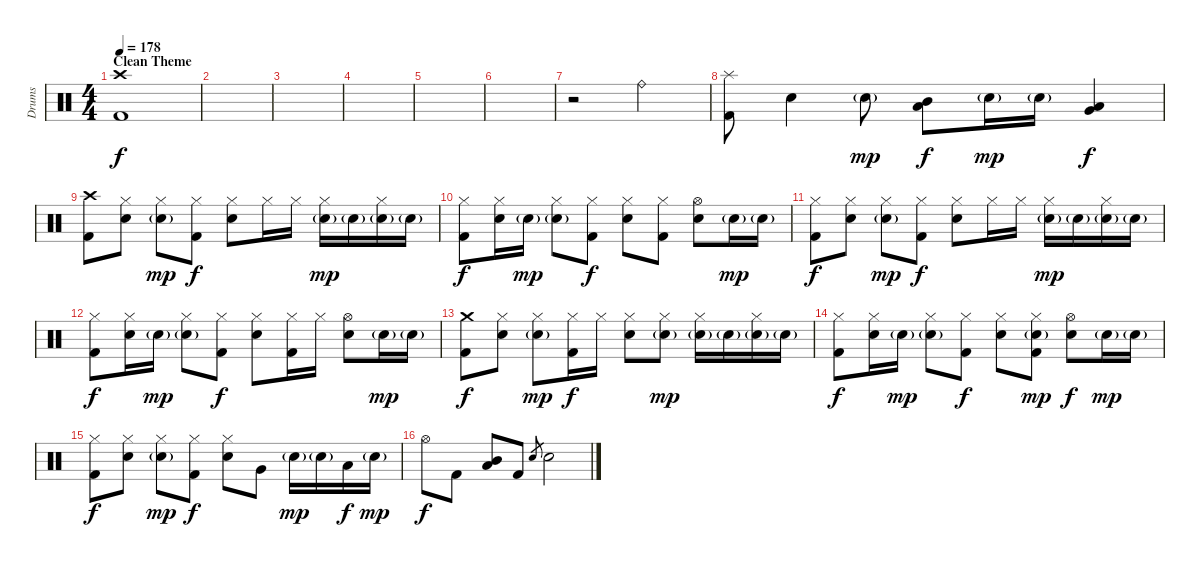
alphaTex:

\track ("Drums" "Drums") {instrument percussion}
\staff {score}
\articulation defaults
\ts (4 4)
\section ("" "Clean Theme")
\tempo 178
\clef neutral
\ks c
("Crash high (hit)" "Kick (hit) 2").1{dy f} |
|
|
|
|
|
r.2 "Ride (bell)".2 |
("Splash (hit)" "Kick (hit) 2").8 "Snare (hit) 2".4 "Snare (hit) 2"{g}.8{dy mp} ("Mid Tom (hit)" "Low Tom (hit)").8{dy f} "Snare (hit) 2"{g}.16{dy mp} "Snare (hit) 2"{g}.16 ("Low Tom (hit)" "Very Low Tom (hit)").4{dy f} |
("Crash high (hit)" "Kick (hit) 2").8 ("Hi-Hat (closed)" "Snare (hit) 2").8 ("Hi-Hat (closed)" "Snare (hit) 2"{g}).8{dy mp} ("Hi-Hat (closed)" "Kick (hit) 2").8{dy f} ("Hi-Hat (closed)" "Snare (hit) 2").8 "Hi-Hat (closed)".16 "Hi-Hat (closed)".16 ("Hi-Hat (closed)" "Snare (hit) 2"{g}).16{dy mp} "Snare (hit) 2"{g}.16 ("Hi-Hat (closed)" "Snare (hit) 2"{g}).16 "Snare (hit) 2"{g}.16 |
("Hi-Hat (closed)" "Kick (hit) 2").8{dy f} ("Hi-Hat (closed)" "Snare (hit) 2").16 "Snare (hit) 2"{g}.16{dy mp} ("Hi-Hat (closed)" "Snare (hit) 2"{g}).8 ("Hi-Hat (closed)" "Kick (hit) 2").8{dy f} ("Hi-Hat (closed)" "Snare (hit) 2").8 ("Hi-Hat (closed)" "Kick (hit) 2").8 ("Hi-Hat (open)" "Snare (hit) 2").8 "Snare (hit) 2"{g}.16{dy mp} "Snare (hit) 2"{g}.16 |
("Hi-Hat (closed)" "Kick (hit) 2").8{dy f} ("Hi-Hat (closed)" "Snare (hit) 2").8 ("Hi-Hat (closed)" "Snare (hit) 2"{g}).8{dy mp} ("Hi-Hat (closed)" "Kick (hit) 2").8{dy f} ("Hi-Hat (closed)" "Snare (hit) 2").8 "Hi-Hat (closed)".16 "Hi-Hat (closed)".16 ("Hi-Hat (closed)" "Snare (hit) 2"{g}).16{dy mp} "Snare (hit) 2"{g}.16 ("Hi-Hat (closed)" "Snare (hit) 2"{g}).16 "Snare (hit) 2"{g}.16 |
("Hi-Hat (closed)" "Kick (hit) 2").8{dy f} ("Hi-Hat (closed)" "Snare (hit) 2").16 "Snare (hit) 2"{g}.16{dy mp} ("Hi-Hat (closed)" "Snare (hit) 2"{g}).8 ("Hi-Hat (closed)" "Kick (hit) 2").8{dy f} ("Hi-Hat (closed)" "Snare (hit) 2").8 ("Hi-Hat (closed)" "Kick (hit) 2").16 "Hi-Hat (closed)".16 ("Hi-Hat (open)" "Snare (hit) 2").8 "Snare (hit) 2"{g}.16{dy mp} "Snare (hit) 2"{g}.16 |
("Crash medium (hit)" "Kick (hit) 2").8{dy f} ("Hi-Hat (closed)" "Snare (hit) 2").8 ("Hi-Hat (closed)" "Snare (hit) 2"{g}).8{dy mp} ("Hi-Hat (closed)" "Kick (hit) 2").16{dy f} "Hi-Hat (closed)".16 ("Hi-Hat (closed)" "Snare (hit) 2").8 ("Hi-Hat (closed)" "Snare (hit) 2"{g}).8{dy mp} ("Hi-Hat (closed)" "Snare (hit) 2"{g}).16 "Snare (hit) 2"{g}.16 ("Hi-Hat (closed)" "Snare (hit) 2"{g}).16 "Snare (hit) 2"{g}.16 |
("Hi-Hat (closed)" "Kick (hit) 2").8{dy f} ("Hi-Hat (closed)" "Snare (hit) 2").16 "Snare (hit) 2"{g}.16{dy mp} ("Hi-Hat (closed)" "Snare (hit) 2"{g}).8 ("Hi-Hat (closed)" "Kick (hit) 2").8{dy f} ("Hi-Hat (closed)" "Snare (hit) 2").8 ("Hi-Hat (closed)" "Snare (hit) 2"{g} "Kick (hit) 2").8{dy mp} ("Hi-Hat (open)" "Snare (hit) 2").8{dy f} "Snare (hit) 2"{g}.16{dy mp} "Snare (hit) 2"{g}.16 |
("Hi-Hat (closed)" "Kick (hit) 2").8{dy f} ("Hi-Hat (closed)" "Snare (hit) 2").8 ("Hi-Hat (closed)" "Snare (hit) 2"{g}).8{dy mp} ("Hi-Hat (closed)" "Kick (hit) 2").8{dy f} ("Hi-Hat (closed)" "Snare (hit) 2").8 "Very Low Tom (hit)".8 "Snare (hit) 2"{g}.16{dy mp} "Snare (hit) 2"{g}.16 "Low Floor Tom (hit)".16{dy f} "Snare (hit) 2"{g}.16{dy mp} |
"Hi-Hat (open)".8{dy f} "Kick (hit) 2".8 ("Mid Tom (hit)" "Low Tom (hit)").8 "Kick (hit) 2".8 "Snare (hit) 2".8{gr} "Snare (hit) 2".2
